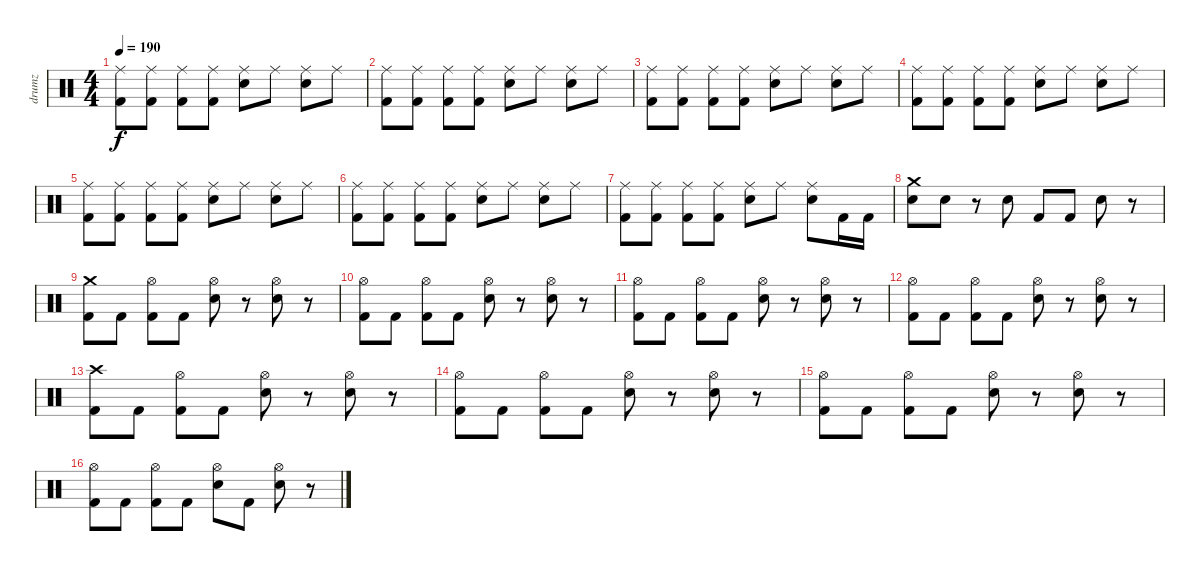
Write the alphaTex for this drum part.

\track ("drumz" "drumz") {instrument percussion}
\staff {score}
\articulation defaults
\ts (4 4)
\tempo 190
\clef neutral
\ks c
("Ride (middle)" "Kick (hit) 2").8{dy f} ("Ride (middle)" "Kick (hit) 2").8 ("Ride (middle)" "Kick (hit) 2").8 ("Ride (middle)" "Kick (hit) 2").8 ("Ride (middle)" "Electric Snare (hit)").8 "Ride (middle)".8 ("Ride (middle)" "Electric Snare (hit)").8 "Ride (middle)".8 |
("Ride (middle)" "Kick (hit) 2").8 ("Ride (middle)" "Kick (hit) 2").8 ("Ride (middle)" "Kick (hit) 2").8 ("Ride (middle)" "Kick (hit) 2").8 ("Ride (middle)" "Electric Snare (hit)").8 "Ride (middle)".8 ("Ride (middle)" "Electric Snare (hit)").8 "Ride (middle)".8 |
("Ride (middle)" "Kick (hit) 2").8 ("Ride (middle)" "Kick (hit) 2").8 ("Ride (middle)" "Kick (hit) 2").8 ("Ride (middle)" "Kick (hit) 2").8 ("Ride (middle)" "Electric Snare (hit)").8 "Ride (middle)".8 ("Ride (middle)" "Electric Snare (hit)").8 "Ride (middle)".8 |
("Ride (middle)" "Kick (hit) 2").8 ("Ride (middle)" "Kick (hit) 2").8 ("Ride (middle)" "Kick (hit) 2").8 ("Ride (middle)" "Kick (hit) 2").8 ("Ride (middle)" "Electric Snare (hit)").8 "Ride (middle)".8 ("Ride (middle)" "Electric Snare (hit)").8 "Ride (middle)".8 |
("Ride (middle)" "Kick (hit) 2").8 ("Ride (middle)" "Kick (hit) 2").8 ("Ride (middle)" "Kick (hit) 2").8 ("Ride (middle)" "Kick (hit) 2").8 ("Ride (middle)" "Electric Snare (hit)").8 "Ride (middle)".8 ("Ride (middle)" "Electric Snare (hit)").8 "Ride (middle)".8 |
("Ride (middle)" "Kick (hit) 2").8 ("Ride (middle)" "Kick (hit) 2").8 ("Ride (middle)" "Kick (hit) 2").8 ("Ride (middle)" "Kick (hit) 2").8 ("Ride (middle)" "Electric Snare (hit)").8 "Ride (middle)".8 ("Ride (middle)" "Electric Snare (hit)").8 "Ride (middle)".8 |
("Ride (middle)" "Kick (hit) 2").8 ("Ride (middle)" "Kick (hit) 2").8 ("Ride (middle)" "Kick (hit) 2").8 ("Ride (middle)" "Kick (hit) 2").8 ("Ride (middle)" "Electric Snare (hit)").8 "Ride (middle)".8 ("Ride (middle)" "Electric Snare (hit)").8 "Kick (hit) 2".16 "Kick (hit) 2".16 |
("Crash medium (hit)" "Electric Snare (hit)").8 "Electric Snare (hit)".8 r.8 "Electric Snare (hit)".8 "Kick (hit) 2".8 "Kick (hit) 2".8 "Electric Snare (hit)".8 r.8 |
\section ("" "")
("Crash medium (hit)" "Kick (hit) 2").8 "Kick (hit) 2".8 ("Hi-Hat (open)" "Kick (hit) 2").8 "Kick (hit) 2".8 ("Hi-Hat (open)" "Electric Snare (hit)").8 r.8 ("Hi-Hat (open)" "Electric Snare (hit)").8 r.8 |
("Hi-Hat (open)" "Kick (hit) 2").8 "Kick (hit) 2".8 ("Hi-Hat (open)" "Kick (hit) 2").8 "Kick (hit) 2".8 ("Hi-Hat (open)" "Electric Snare (hit)").8 r.8 ("Hi-Hat (open)" "Electric Snare (hit)").8 r.8 |
("Hi-Hat (open)" "Kick (hit) 2").8 "Kick (hit) 2".8 ("Hi-Hat (open)" "Kick (hit) 2").8 "Kick (hit) 2".8 ("Hi-Hat (open)" "Electric Snare (hit)").8 r.8 ("Hi-Hat (open)" "Electric Snare (hit)").8 r.8 |
("Hi-Hat (open)" "Kick (hit) 2").8 "Kick (hit) 2".8 ("Hi-Hat (open)" "Kick (hit) 2").8 "Kick (hit) 2".8 ("Hi-Hat (open)" "Electric Snare (hit)").8 r.8 ("Hi-Hat (open)" "Electric Snare (hit)").8 r.8 |
("Crash high (hit)" "Kick (hit) 2").8 "Kick (hit) 2".8 ("Hi-Hat (open)" "Kick (hit) 2").8 "Kick (hit) 2".8 ("Hi-Hat (open)" "Electric Snare (hit)").8 r.8 ("Hi-Hat (open)" "Electric Snare (hit)").8 r.8 |
("Hi-Hat (open)" "Kick (hit) 2").8 "Kick (hit) 2".8 ("Hi-Hat (open)" "Kick (hit) 2").8 "Kick (hit) 2".8 ("Hi-Hat (open)" "Electric Snare (hit)").8 r.8 ("Hi-Hat (open)" "Electric Snare (hit)").8 r.8 |
("Hi-Hat (open)" "Kick (hit) 2").8 "Kick (hit) 2".8 ("Hi-Hat (open)" "Kick (hit) 2").8 "Kick (hit) 2".8 ("Hi-Hat (open)" "Electric Snare (hit)").8 r.8 ("Hi-Hat (open)" "Electric Snare (hit)").8 r.8 |
("Hi-Hat (open)" "Kick (hit) 2").8 "Kick (hit) 2".8 ("Hi-Hat (open)" "Kick (hit) 2").8 "Kick (hit) 2".8 ("Hi-Hat (open)" "Electric Snare (hit)").8 "Kick (hit) 2".8 ("Hi-Hat (open)" "Electric Snare (hit)").8 r.8
